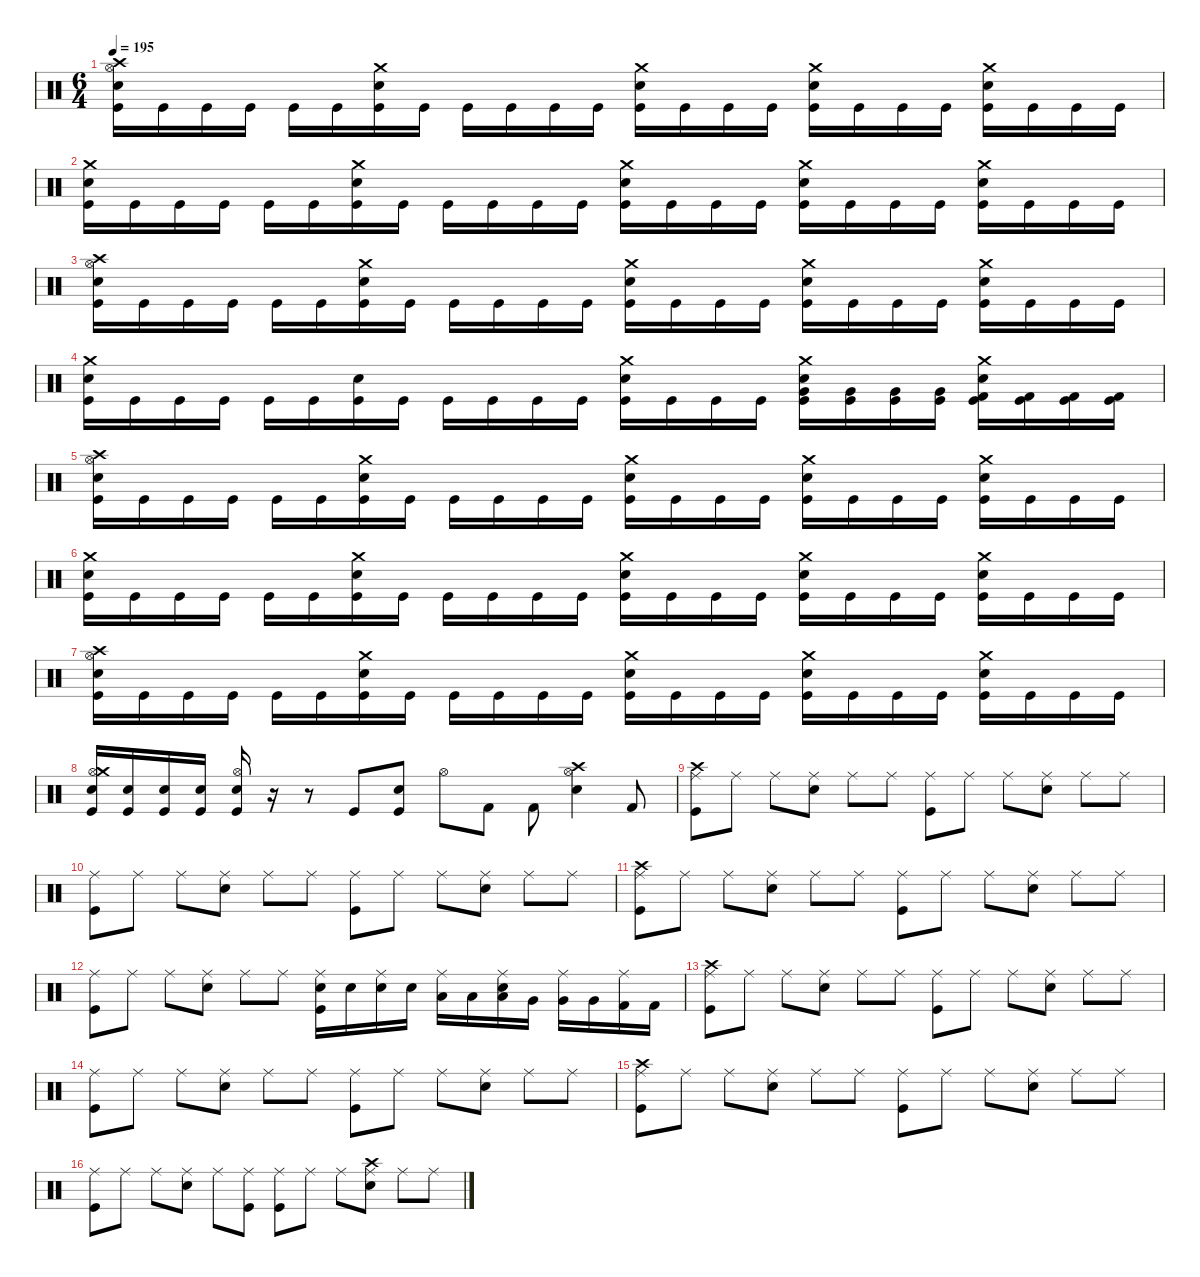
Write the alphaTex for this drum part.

\defaultSystemsLayout 4
\hideDynamics
\bracketExtendMode nobrackets
\singleTrackTrackNamePolicy hidden
\multiTrackTrackNamePolicy hidden
\firstSystemTrackNameMode fullname
\firstSystemTrackNameOrientation horizontal
\otherSystemsTrackNameOrientation horizontal
\track ("Percussion" "drm.") {defaultSystemsLayout 2 instrument percussion}
\staff {score}
\articulation defaults
\ts (6 4)
\tempo 195
\clef neutral
\ks c
("Crash high (hit)" "Hi-Hat (open)" "Snare (hit) 2" "Kick (hit)").16{dy f beam Down} "Kick (hit)".16{beam Down} "Kick (hit)".16{beam Down} "Kick (hit)".16{beam Down} "Kick (hit)".16{beam Down} "Kick (hit)".16{beam Down} ("Crash medium (hit)" "Snare (hit) 2" "Kick (hit)").16{beam Down} "Kick (hit)".16{beam Down} "Kick (hit)".16{beam Down} "Kick (hit)".16{beam Down} "Kick (hit)".16{beam Down} "Kick (hit)".16{beam Down} ("Crash medium (hit)" "Snare (hit) 2" "Kick (hit)").16{beam Down} "Kick (hit)".16{beam Down} "Kick (hit)".16{beam Down} "Kick (hit)".16{beam Down} ("Crash medium (hit)" "Snare (hit) 2" "Kick (hit)").16{beam Down} "Kick (hit)".16{beam Down} "Kick (hit)".16{beam Down} "Kick (hit)".16{beam Down} ("Crash medium (hit)" "Snare (hit) 2" "Kick (hit)").16{beam Down} "Kick (hit)".16{beam Down} "Kick (hit)".16{beam Down} "Kick (hit)".16{beam Down} |
("Crash medium (hit)" "Snare (hit) 2" "Kick (hit)").16{beam Down} "Kick (hit)".16{beam Down} "Kick (hit)".16{beam Down} "Kick (hit)".16{beam Down} "Kick (hit)".16{beam Down} "Kick (hit)".16{beam Down} ("Crash medium (hit)" "Snare (hit) 2" "Kick (hit)").16{beam Down} "Kick (hit)".16{beam Down} "Kick (hit)".16{beam Down} "Kick (hit)".16{beam Down} "Kick (hit)".16{beam Down} "Kick (hit)".16{beam Down} ("Crash medium (hit)" "Snare (hit) 2" "Kick (hit)").16{beam Down} "Kick (hit)".16{beam Down} "Kick (hit)".16{beam Down} "Kick (hit)".16{beam Down} ("Crash medium (hit)" "Snare (hit) 2" "Kick (hit)").16{beam Down} "Kick (hit)".16{beam Down} "Kick (hit)".16{beam Down} "Kick (hit)".16{beam Down} ("Crash medium (hit)" "Snare (hit) 2" "Kick (hit)").16{beam Down} "Kick (hit)".16{beam Down} "Kick (hit)".16{beam Down} "Kick (hit)".16{beam Down} |
("Crash high (hit)" "Hi-Hat (open)" "Snare (hit) 2" "Kick (hit)").16{beam Down} "Kick (hit)".16{beam Down} "Kick (hit)".16{beam Down} "Kick (hit)".16{beam Down} "Kick (hit)".16{beam Down} "Kick (hit)".16{beam Down} ("Crash medium (hit)" "Snare (hit) 2" "Kick (hit)").16{beam Down} "Kick (hit)".16{beam Down} "Kick (hit)".16{beam Down} "Kick (hit)".16{beam Down} "Kick (hit)".16{beam Down} "Kick (hit)".16{beam Down} ("Crash medium (hit)" "Snare (hit) 2" "Kick (hit)").16{beam Down} "Kick (hit)".16{beam Down} "Kick (hit)".16{beam Down} "Kick (hit)".16{beam Down} ("Crash medium (hit)" "Snare (hit) 2" "Kick (hit)").16{beam Down} "Kick (hit)".16{beam Down} "Kick (hit)".16{beam Down} "Kick (hit)".16{beam Down} ("Crash medium (hit)" "Snare (hit) 2" "Kick (hit)").16{beam Down} "Kick (hit)".16{beam Down} "Kick (hit)".16{beam Down} "Kick (hit)".16{beam Down} |
("Crash medium (hit)" "Snare (hit) 2" "Kick (hit)").16{beam Down} "Kick (hit)".16{beam Down} "Kick (hit)".16{beam Down} "Kick (hit)".16{beam Down} "Kick (hit)".16{beam Down} "Kick (hit)".16{beam Down} ("Snare (hit) 2" "Kick (hit)").16{beam Down} "Kick (hit)".16{beam Down} "Kick (hit)".16{beam Down} "Kick (hit)".16{beam Down} "Kick (hit)".16{beam Down} "Kick (hit)".16{beam Down} ("Crash medium (hit)" "Snare (hit) 2" "Kick (hit)").16{beam Down} "Kick (hit)".16{beam Down} "Kick (hit)".16{beam Down} "Kick (hit)".16{beam Down} ("Very Low Tom (hit)" "Crash medium (hit)" "Snare (hit) 2" "Kick (hit)").16{beam Down} ("Very Low Tom (hit)" "Kick (hit)").16{beam Down} ("Very Low Tom (hit)" "Kick (hit)").16{beam Down} ("Very Low Tom (hit)" "Kick (hit)").16{beam Down} ("Kick (hit) 2" "Crash medium (hit)" "Snare (hit) 2" "Kick (hit)").16{beam Down} ("Kick (hit) 2" "Kick (hit)").16{beam Down} ("Kick (hit) 2" "Kick (hit)").16{beam Down} ("Kick (hit) 2" "Kick (hit)").16{beam Down} |
("Crash high (hit)" "Hi-Hat (open)" "Snare (hit) 2" "Kick (hit)").16{beam Down} "Kick (hit)".16{beam Down} "Kick (hit)".16{beam Down} "Kick (hit)".16{beam Down} "Kick (hit)".16{beam Down} "Kick (hit)".16{beam Down} ("Crash medium (hit)" "Snare (hit) 2" "Kick (hit)").16{beam Down} "Kick (hit)".16{beam Down} "Kick (hit)".16{beam Down} "Kick (hit)".16{beam Down} "Kick (hit)".16{beam Down} "Kick (hit)".16{beam Down} ("Crash medium (hit)" "Snare (hit) 2" "Kick (hit)").16{beam Down} "Kick (hit)".16{beam Down} "Kick (hit)".16{beam Down} "Kick (hit)".16{beam Down} ("Crash medium (hit)" "Snare (hit) 2" "Kick (hit)").16{beam Down} "Kick (hit)".16{beam Down} "Kick (hit)".16{beam Down} "Kick (hit)".16{beam Down} ("Crash medium (hit)" "Snare (hit) 2" "Kick (hit)").16{beam Down} "Kick (hit)".16{beam Down} "Kick (hit)".16{beam Down} "Kick (hit)".16{beam Down} |
("Crash medium (hit)" "Snare (hit) 2" "Kick (hit)").16{beam Down} "Kick (hit)".16{beam Down} "Kick (hit)".16{beam Down} "Kick (hit)".16{beam Down} "Kick (hit)".16{beam Down} "Kick (hit)".16{beam Down} ("Crash medium (hit)" "Snare (hit) 2" "Kick (hit)").16{beam Down} "Kick (hit)".16{beam Down} "Kick (hit)".16{beam Down} "Kick (hit)".16{beam Down} "Kick (hit)".16{beam Down} "Kick (hit)".16{beam Down} ("Crash medium (hit)" "Snare (hit) 2" "Kick (hit)").16{beam Down} "Kick (hit)".16{beam Down} "Kick (hit)".16{beam Down} "Kick (hit)".16{beam Down} ("Crash medium (hit)" "Snare (hit) 2" "Kick (hit)").16{beam Down} "Kick (hit)".16{beam Down} "Kick (hit)".16{beam Down} "Kick (hit)".16{beam Down} ("Crash medium (hit)" "Snare (hit) 2" "Kick (hit)").16{beam Down} "Kick (hit)".16{beam Down} "Kick (hit)".16{beam Down} "Kick (hit)".16{beam Down} |
("Crash high (hit)" "Hi-Hat (open)" "Snare (hit) 2" "Kick (hit)").16{beam Down} "Kick (hit)".16{beam Down} "Kick (hit)".16{beam Down} "Kick (hit)".16{beam Down} "Kick (hit)".16{beam Down} "Kick (hit)".16{beam Down} ("Crash medium (hit)" "Snare (hit) 2" "Kick (hit)").16{beam Down} "Kick (hit)".16{beam Down} "Kick (hit)".16{beam Down} "Kick (hit)".16{beam Down} "Kick (hit)".16{beam Down} "Kick (hit)".16{beam Down} ("Crash medium (hit)" "Snare (hit) 2" "Kick (hit)").16{beam Down} "Kick (hit)".16{beam Down} "Kick (hit)".16{beam Down} "Kick (hit)".16{beam Down} ("Crash medium (hit)" "Snare (hit) 2" "Kick (hit)").16{beam Down} "Kick (hit)".16{beam Down} "Kick (hit)".16{beam Down} "Kick (hit)".16{beam Down} ("Crash medium (hit)" "Snare (hit) 2" "Kick (hit)").16{beam Down} "Kick (hit)".16{beam Down} "Kick (hit)".16{beam Down} "Kick (hit)".16{beam Down} |
("Hi-Hat (open)" "Crash medium (hit)" "Snare (hit) 2" "Kick (hit)").16{beam Up} ("Snare (hit) 2" "Kick (hit)").16{beam Up} ("Snare (hit) 2" "Kick (hit)").16{beam Up} ("Snare (hit) 2" "Kick (hit)").16{beam Up} ("Hi-Hat (open)" "Snare (hit) 2" "Kick (hit)").16{beam Up} r.16{beam Up} r.8{beam Up} "Kick (hit)".8{beam Up} ("Snare (hit) 2" "Kick (hit)").8{beam Up} "Hi-Hat (open)".8{beam Down} "Kick (hit) 2".8{beam Down} "Kick (hit) 2".8{beam Down} ("Hi-Hat (open)" "Crash high (hit)" "Snare (hit) 2").4{beam Down} "Kick (hit) 2".8{beam Up} |
("Ride (middle)" "Crash high (hit)" "Kick (hit)").8{beam Down} "Ride (middle)".8{beam Down} "Ride (middle)".8{beam Down} ("Ride (middle)" "Snare (hit) 2").8{beam Down} "Ride (middle)".8{beam Down} "Ride (middle)".8{beam Down} ("Ride (middle)" "Kick (hit)").8{beam Down} "Ride (middle)".8{beam Down} "Ride (middle)".8{beam Down} ("Ride (middle)" "Snare (hit) 2").8{beam Down} "Ride (middle)".8{beam Down} "Ride (middle)".8{beam Down} |
("Ride (middle)" "Kick (hit)").8{beam Down} "Ride (middle)".8{beam Down} "Ride (middle)".8{beam Down} ("Ride (middle)" "Snare (hit) 2").8{beam Down} "Ride (middle)".8{beam Down} "Ride (middle)".8{beam Down} ("Ride (middle)" "Kick (hit)").8{beam Down} "Ride (middle)".8{beam Down} "Ride (middle)".8{beam Down} ("Ride (middle)" "Snare (hit) 2").8{beam Down} "Ride (middle)".8{beam Down} "Ride (middle)".8{beam Down} |
("Ride (middle)" "Crash high (hit)" "Kick (hit)").8{beam Down} "Ride (middle)".8{beam Down} "Ride (middle)".8{beam Down} ("Ride (middle)" "Snare (hit) 2").8{beam Down} "Ride (middle)".8{beam Down} "Ride (middle)".8{beam Down} ("Ride (middle)" "Kick (hit)").8{beam Down} "Ride (middle)".8{beam Down} "Ride (middle)".8{beam Down} ("Ride (middle)" "Snare (hit) 2").8{beam Down} "Ride (middle)".8{beam Down} "Ride (middle)".8{beam Down} |
("Ride (middle)" "Kick (hit)").8{beam Down} "Ride (middle)".8{beam Down} "Ride (middle)".8{beam Down} ("Ride (middle)" "Snare (hit) 2").8{beam Down} "Ride (middle)".8{beam Down} "Ride (middle)".8{beam Down} ("Ride (middle)" "Snare (hit) 2" "Kick (hit)").16{beam Down} "Snare (hit) 2".16{beam Down} ("Ride (middle)" "Snare (hit) 2").16{beam Down} "Snare (hit) 2".16{beam Down} ("Ride (middle)" "Low Tom (hit)").16{beam Down} "Low Tom (hit)".16{beam Down} ("Ride (middle)" "Low Tom (hit)" "Snare (hit) 2").16{beam Down} "Very Low Tom (hit)".16{beam Down} ("Ride (middle)" "Very Low Tom (hit)").16{beam Down} "Very Low Tom (hit)".16{beam Down} ("Ride (middle)" "Kick (hit) 2").16{beam Down} "Kick (hit) 2".16{beam Down} |
("Ride (middle)" "Crash high (hit)" "Kick (hit)").8{beam Down} "Ride (middle)".8{beam Down} "Ride (middle)".8{beam Down} ("Ride (middle)" "Snare (hit) 2").8{beam Down} "Ride (middle)".8{beam Down} "Ride (middle)".8{beam Down} ("Ride (middle)" "Kick (hit)").8{beam Down} "Ride (middle)".8{beam Down} "Ride (middle)".8{beam Down} ("Ride (middle)" "Snare (hit) 2").8{beam Down} "Ride (middle)".8{beam Down} "Ride (middle)".8{beam Down} |
("Ride (middle)" "Kick (hit)").8{beam Down} "Ride (middle)".8{beam Down} "Ride (middle)".8{beam Down} ("Ride (middle)" "Snare (hit) 2").8{beam Down} "Ride (middle)".8{beam Down} "Ride (middle)".8{beam Down} ("Ride (middle)" "Kick (hit)").8{beam Down} "Ride (middle)".8{beam Down} "Ride (middle)".8{beam Down} ("Ride (middle)" "Snare (hit) 2").8{beam Down} "Ride (middle)".8{beam Down} "Ride (middle)".8{beam Down} |
("Ride (middle)" "Crash high (hit)" "Kick (hit)").8{beam Down} "Ride (middle)".8{beam Down} "Ride (middle)".8{beam Down} ("Ride (middle)" "Snare (hit) 2").8{beam Down} "Ride (middle)".8{beam Down} "Ride (middle)".8{beam Down} ("Ride (middle)" "Kick (hit)").8{beam Down} "Ride (middle)".8{beam Down} "Ride (middle)".8{beam Down} ("Ride (middle)" "Snare (hit) 2").8{beam Down} "Ride (middle)".8{beam Down} "Ride (middle)".8{beam Down} |
("Ride (middle)" "Kick (hit)").8{beam Down} "Ride (middle)".8{beam Down} "Ride (middle)".8{beam Down} ("Ride (middle)" "Snare (hit) 2").8{beam Down} "Ride (middle)".8{beam Down} ("Ride (middle)" "Kick (hit)").8{beam Down} ("Ride (middle)" "Kick (hit)").8{beam Down} "Ride (middle)".8{beam Down} "Ride (middle)".8{beam Down} ("Ride (middle)" "Crash high (hit)" "Snare (hit) 2").8{beam Down} "Ride (middle)".8{beam Down} "Ride (middle)".8{beam Down}
